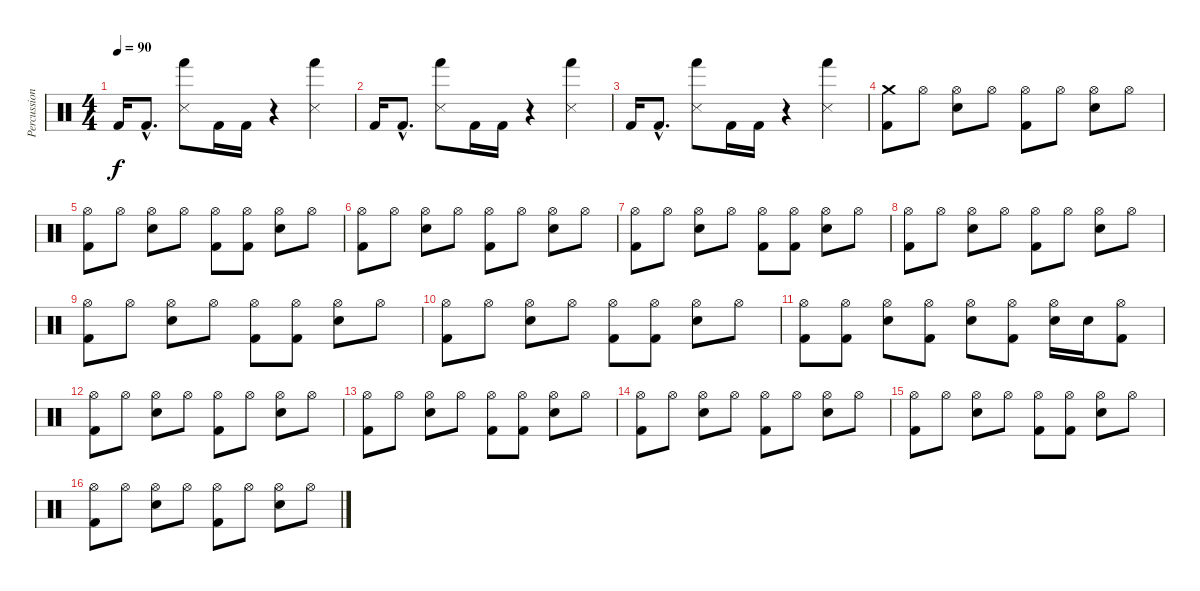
\track ("Percussions" "Percussion") {instrument percussion}
\staff {score}
\articulation defaults
\ts (4 4)
\tempo 90
\clef neutral
\ks c "Kick (hit) 2".16{dy f} "Kick (hit) 2"{hac}.8{d}
("Hand (hit)" "Snare (side stick) 3").8 "Kick (hit) 2".16 "Kick (hit) 2".16 r.4 ("Hand (hit)" "Snare (side stick) 3").4 |
"Kick (hit) 2".16 "Kick (hit) 2"{hac}.8{d} ("Hand (hit)" "Snare (side stick) 3").8 "Kick (hit) 2".16 "Kick (hit) 2".16 r.4 ("Hand (hit)" "Snare (side stick) 3").4 |
"Kick (hit) 2".16 "Kick (hit) 2"{hac}.8{d} ("Hand (hit)" "Snare (side stick) 3").8 "Kick (hit) 2".16 "Kick (hit) 2".16 r.4 ("Hand (hit)" "Snare (side stick) 3").4 |
("Crash medium (hit)" "Kick (hit) 2").8 "Hi-Hat (open)".8 ("Hi-Hat (open)" "Snare (hit) 2").8 "Hi-Hat (open)".8 ("Hi-Hat (open)" "Kick (hit) 2").8 "Hi-Hat (open)".8 ("Hi-Hat (open)" "Snare (hit) 2").8 "Hi-Hat (open)".8 |
("Hi-Hat (open)" "Kick (hit) 2").8 "Hi-Hat (open)".8 ("Hi-Hat (open)" "Snare (hit) 2").8 "Hi-Hat (open)".8 ("Hi-Hat (open)" "Kick (hit) 2").8 ("Hi-Hat (open)" "Kick (hit) 2").8 ("Hi-Hat (open)" "Snare (hit) 2").8 "Hi-Hat (open)".8 |
("Hi-Hat (open)" "Kick (hit) 2").8 "Hi-Hat (open)".8 ("Hi-Hat (open)" "Snare (hit) 2").8 "Hi-Hat (open)".8 ("Hi-Hat (open)" "Kick (hit) 2").8 "Hi-Hat (open)".8 ("Hi-Hat (open)" "Snare (hit) 2").8 "Hi-Hat (open)".8 |
("Hi-Hat (open)" "Kick (hit) 2").8 "Hi-Hat (open)".8 ("Hi-Hat (open)" "Snare (hit) 2").8 "Hi-Hat (open)".8 ("Hi-Hat (open)" "Kick (hit) 2").8 ("Hi-Hat (open)" "Kick (hit) 2").8 ("Hi-Hat (open)" "Snare (hit) 2").8 "Hi-Hat (open)".8 |
("Hi-Hat (open)" "Kick (hit) 2").8 "Hi-Hat (open)".8 ("Hi-Hat (open)" "Snare (hit) 2").8 "Hi-Hat (open)".8 ("Hi-Hat (open)" "Kick (hit) 2").8 "Hi-Hat (open)".8 ("Hi-Hat (open)" "Snare (hit) 2").8 "Hi-Hat (open)".8 |
("Hi-Hat (open)" "Kick (hit) 2").8 "Hi-Hat (open)".8 ("Hi-Hat (open)" "Snare (hit) 2").8 "Hi-Hat (open)".8 ("Hi-Hat (open)" "Kick (hit) 2").8 ("Hi-Hat (open)" "Kick (hit) 2").8 ("Hi-Hat (open)" "Snare (hit) 2").8 "Hi-Hat (open)".8 |
("Hi-Hat (open)" "Kick (hit) 2").8 "Hi-Hat (open)".8 ("Hi-Hat (open)" "Snare (hit) 2").8 "Hi-Hat (open)".8 ("Hi-Hat (open)" "Kick (hit) 2").8 ("Hi-Hat (open)" "Kick (hit) 2").8 ("Hi-Hat (open)" "Snare (hit) 2").8 "Hi-Hat (open)".8 |
("Hi-Hat (open)" "Kick (hit) 2").8 ("Hi-Hat (open)" "Kick (hit) 2").8 ("Hi-Hat (open)" "Snare (hit) 2").8 ("Hi-Hat (open)" "Kick (hit) 2").8 ("Hi-Hat (open)" "Snare (hit) 2").8 ("Hi-Hat (open)" "Kick (hit) 2").8 ("Hi-Hat (open)" "Snare (hit) 2").16 "Snare (hit) 2".16 ("Hi-Hat (open)" "Kick (hit) 2").8 |
("Hi-Hat (open)" "Kick (hit) 2").8 "Hi-Hat (open)".8 ("Hi-Hat (open)" "Snare (hit) 2").8 "Hi-Hat (open)".8 ("Hi-Hat (open)" "Kick (hit) 2").8 "Hi-Hat (open)".8 ("Hi-Hat (open)" "Snare (hit) 2").8 "Hi-Hat (open)".8 |
("Hi-Hat (open)" "Kick (hit) 2").8 "Hi-Hat (open)".8 ("Hi-Hat (open)" "Snare (hit) 2").8 "Hi-Hat (open)".8 ("Hi-Hat (open)" "Kick (hit) 2").8 ("Hi-Hat (open)" "Kick (hit) 2").8 ("Hi-Hat (open)" "Snare (hit) 2").8 "Hi-Hat (open)".8 |
("Hi-Hat (open)" "Kick (hit) 2").8 "Hi-Hat (open)".8 ("Hi-Hat (open)" "Snare (hit) 2").8 "Hi-Hat (open)".8 ("Hi-Hat (open)" "Kick (hit) 2").8 "Hi-Hat (open)".8 ("Hi-Hat (open)" "Snare (hit) 2").8 "Hi-Hat (open)".8 |
("Hi-Hat (open)" "Kick (hit) 2").8 "Hi-Hat (open)".8 ("Hi-Hat (open)" "Snare (hit) 2").8 "Hi-Hat (open)".8 ("Hi-Hat (open)" "Kick (hit) 2").8 ("Hi-Hat (open)" "Kick (hit) 2").8 ("Hi-Hat (open)" "Snare (hit) 2").8 "Hi-Hat (open)".8 |
("Hi-Hat (open)" "Kick (hit) 2").8 "Hi-Hat (open)".8 ("Hi-Hat (open)" "Snare (hit) 2").8 "Hi-Hat (open)".8 ("Hi-Hat (open)" "Kick (hit) 2").8 "Hi-Hat (open)".8 ("Hi-Hat (open)" "Snare (hit) 2").8 "Hi-Hat (open)".8
